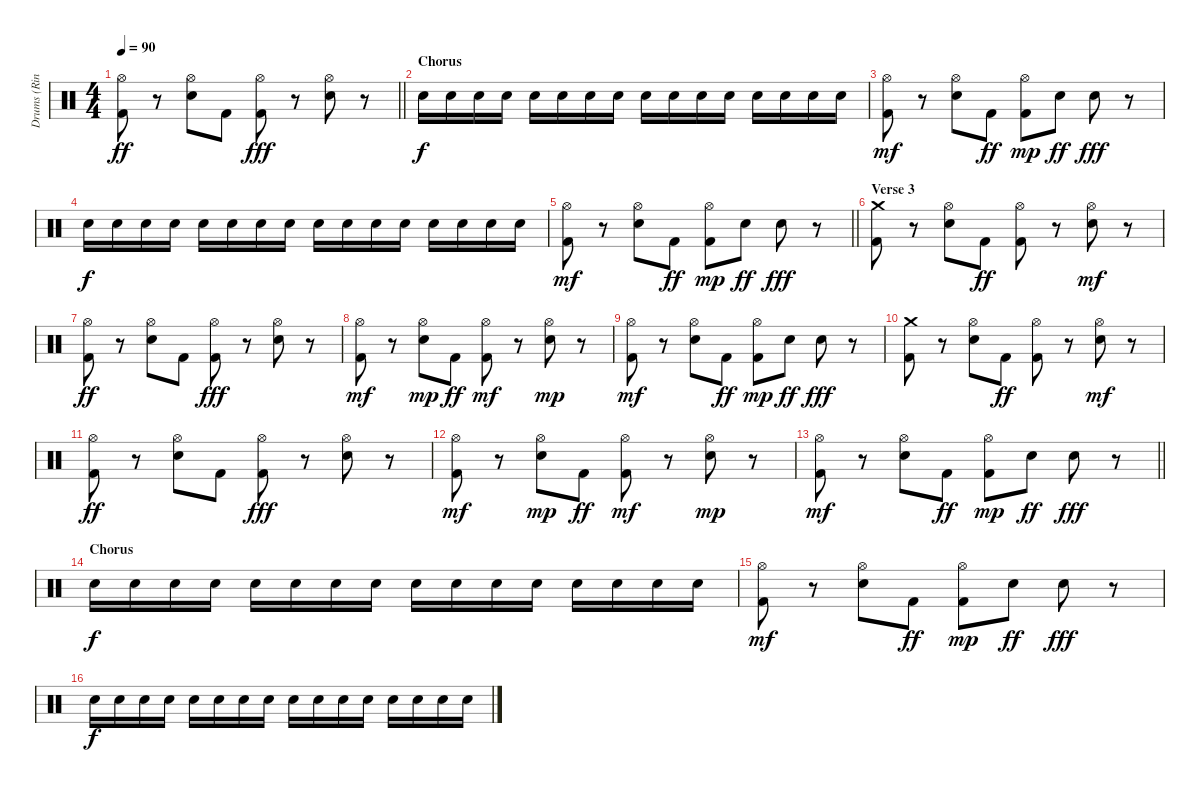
\track ("Drums (Ringo Starr)" "Drums (Rin") {instrument percussion}
\staff {score}
\articulation defaults
\ts (4 4)
\tempo 90
\clef neutral
\barLineRight lightlight
\ks c
("Hi-Hat (open)" "Kick (hit) 2").8{dy ff} r.8 ("Hi-Hat (open)" "Electric Snare (hit)").8 "Kick (hit) 2".8 ("Hi-Hat (open)" "Kick (hit) 2").8{dy fff} r.8 ("Electric Snare (hit)" "Hi-Hat (open)").8 r.8 |
\section ("" "Chorus ")
"Electric Snare (hit)".16{dy f} "Electric Snare (hit)".16 "Electric Snare (hit)".16 "Electric Snare (hit)".16 "Electric Snare (hit)".16 "Electric Snare (hit)".16 "Electric Snare (hit)".16 "Electric Snare (hit)".16 "Electric Snare (hit)".16 "Electric Snare (hit)".16 "Electric Snare (hit)".16 "Electric Snare (hit)".16 "Electric Snare (hit)".16 "Electric Snare (hit)".16 "Electric Snare (hit)".16 "Electric Snare (hit)".16 |
("Kick (hit) 2" "Hi-Hat (open)").8{dy mf} r.8 ("Electric Snare (hit)" "Hi-Hat (open)").8 "Kick (hit) 2".8{dy ff} ("Kick (hit) 2" "Hi-Hat (open)").8{dy mp} "Electric Snare (hit)".8{dy ff} "Electric Snare (hit)".8{dy fff} r.8 |
"Electric Snare (hit)".16{dy f} "Electric Snare (hit)".16 "Electric Snare (hit)".16 "Electric Snare (hit)".16 "Electric Snare (hit)".16 "Electric Snare (hit)".16 "Electric Snare (hit)".16 "Electric Snare (hit)".16 "Electric Snare (hit)".16 "Electric Snare (hit)".16 "Electric Snare (hit)".16 "Electric Snare (hit)".16 "Electric Snare (hit)".16 "Electric Snare (hit)".16 "Electric Snare (hit)".16 "Electric Snare (hit)".16 |
\barLineRight lightlight
("Kick (hit) 2" "Hi-Hat (open)").8{dy mf} r.8 ("Electric Snare (hit)" "Hi-Hat (open)").8 "Kick (hit) 2".8{dy ff} ("Kick (hit) 2" "Hi-Hat (open)").8{dy mp} "Electric Snare (hit)".8{dy ff} "Electric Snare (hit)".8{dy fff} r.8 |
\section ("" "Verse 3")
("Crash medium (hit)" "Kick (hit) 2").8 r.8 ("Hi-Hat (open)" "Electric Snare (hit)").8 "Kick (hit) 2".8{dy ff} ("Kick (hit) 2" "Hi-Hat (open)").8 r.8 ("Electric Snare (hit)" "Hi-Hat (open)").8{dy mf} r.8 |
("Hi-Hat (open)" "Kick (hit) 2").8{dy ff} r.8 ("Hi-Hat (open)" "Electric Snare (hit)").8 "Kick (hit) 2".8 ("Hi-Hat (open)" "Kick (hit) 2").8{dy fff} r.8 ("Electric Snare (hit)" "Hi-Hat (open)").8 r.8 |
("Kick (hit) 2" "Hi-Hat (open)").8{dy mf} r.8 ("Electric Snare (hit)" "Hi-Hat (open)").8{dy mp} "Kick (hit) 2".8{dy ff} ("Kick (hit) 2" "Hi-Hat (open)").8{dy mf} r.8 ("Electric Snare (hit)" "Hi-Hat (open)").8{dy mp} r.8 |
("Kick (hit) 2" "Hi-Hat (open)").8{dy mf} r.8 ("Electric Snare (hit)" "Hi-Hat (open)").8 "Kick (hit) 2".8{dy ff} ("Kick (hit) 2" "Hi-Hat (open)").8{dy mp} "Electric Snare (hit)".8{dy ff} "Electric Snare (hit)".8{dy fff} r.8 |
("Crash medium (hit)" "Kick (hit) 2").8 r.8 ("Hi-Hat (open)" "Electric Snare (hit)").8 "Kick (hit) 2".8{dy ff} ("Kick (hit) 2" "Hi-Hat (open)").8 r.8 ("Electric Snare (hit)" "Hi-Hat (open)").8{dy mf} r.8 |
("Hi-Hat (open)" "Kick (hit) 2").8{dy ff} r.8 ("Hi-Hat (open)" "Electric Snare (hit)").8 "Kick (hit) 2".8 ("Hi-Hat (open)" "Kick (hit) 2").8{dy fff} r.8 ("Electric Snare (hit)" "Hi-Hat (open)").8 r.8 |
("Kick (hit) 2" "Hi-Hat (open)").8{dy mf} r.8 ("Electric Snare (hit)" "Hi-Hat (open)").8{dy mp} "Kick (hit) 2".8{dy ff} ("Kick (hit) 2" "Hi-Hat (open)").8{dy mf} r.8 ("Electric Snare (hit)" "Hi-Hat (open)").8{dy mp} r.8 |
\barLineRight lightlight
("Kick (hit) 2" "Hi-Hat (open)").8{dy mf} r.8 ("Electric Snare (hit)" "Hi-Hat (open)").8 "Kick (hit) 2".8{dy ff} ("Kick (hit) 2" "Hi-Hat (open)").8{dy mp} "Electric Snare (hit)".8{dy ff} "Electric Snare (hit)".8{dy fff} r.8 |
\section ("" "Chorus ")
"Electric Snare (hit)".16{dy f} "Electric Snare (hit)".16 "Electric Snare (hit)".16 "Electric Snare (hit)".16 "Electric Snare (hit)".16 "Electric Snare (hit)".16 "Electric Snare (hit)".16 "Electric Snare (hit)".16 "Electric Snare (hit)".16 "Electric Snare (hit)".16 "Electric Snare (hit)".16 "Electric Snare (hit)".16 "Electric Snare (hit)".16 "Electric Snare (hit)".16 "Electric Snare (hit)".16 "Electric Snare (hit)".16 |
("Kick (hit) 2" "Hi-Hat (open)").8{dy mf} r.8 ("Electric Snare (hit)" "Hi-Hat (open)").8 "Kick (hit) 2".8{dy ff} ("Kick (hit) 2" "Hi-Hat (open)").8{dy mp} "Electric Snare (hit)".8{dy ff} "Electric Snare (hit)".8{dy fff} r.8 |
"Electric Snare (hit)".16{dy f} "Electric Snare (hit)".16 "Electric Snare (hit)".16 "Electric Snare (hit)".16 "Electric Snare (hit)".16 "Electric Snare (hit)".16 "Electric Snare (hit)".16 "Electric Snare (hit)".16 "Electric Snare (hit)".16 "Electric Snare (hit)".16 "Electric Snare (hit)".16 "Electric Snare (hit)".16 "Electric Snare (hit)".16 "Electric Snare (hit)".16 "Electric Snare (hit)".16 "Electric Snare (hit)".16
